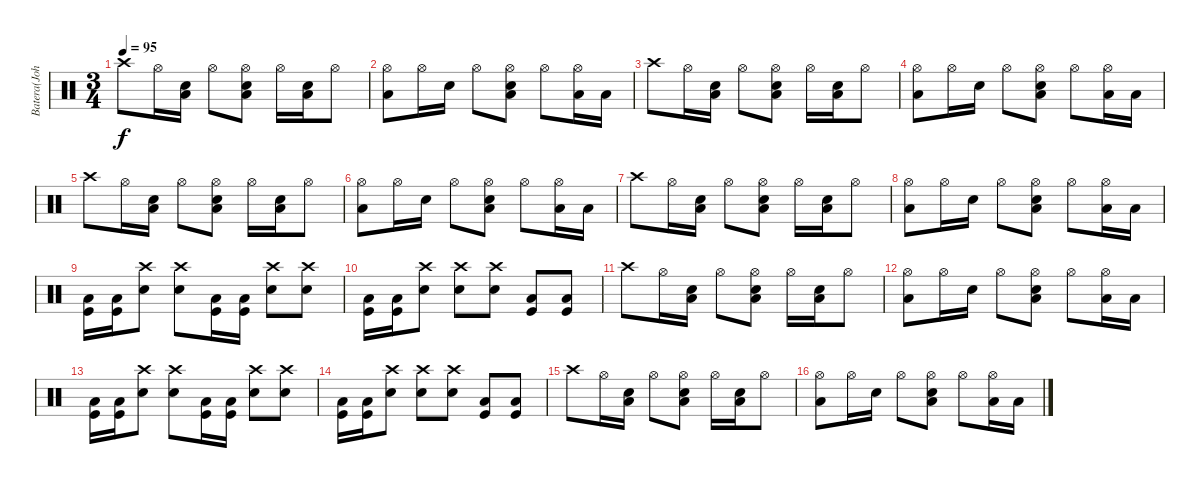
\track ("Batera(John)" "Batera(Joh") {instrument percussion}
\staff {score}
\articulation defaults
\ts (3 4)
\tempo 95
\clef neutral
\ks c "Crash high (hit)".8{dy f} "Hi-Hat (open)".16
("Snare (hit) 2" "Low Tom (hit)").16 "Hi-Hat (open)".8 ("Hi-Hat (open)" "Snare (hit) 2" "Low Tom (hit)").8 "Hi-Hat (open)".16 ("Snare (hit) 2" "Low Tom (hit)").16 "Hi-Hat (open)".8 |
("Hi-Hat (open)" "Low Tom (hit)").8 "Hi-Hat (open)".16 "Snare (hit) 2".16 "Hi-Hat (open)".8 ("Hi-Hat (open)" "Snare (hit) 2" "Low Tom (hit)").8 "Hi-Hat (open)".8 ("Hi-Hat (open)" "Low Tom (hit)").16 "Low Tom (hit)".16 |
"Crash high (hit)".8 "Hi-Hat (open)".16 ("Snare (hit) 2" "Low Tom (hit)").16 "Hi-Hat (open)".8 ("Hi-Hat (open)" "Snare (hit) 2" "Low Tom (hit)").8 "Hi-Hat (open)".16 ("Snare (hit) 2" "Low Tom (hit)").16 "Hi-Hat (open)".8 |
("Hi-Hat (open)" "Low Tom (hit)").8 "Hi-Hat (open)".16 "Snare (hit) 2".16 "Hi-Hat (open)".8 ("Hi-Hat (open)" "Snare (hit) 2" "Low Tom (hit)").8 "Hi-Hat (open)".8 ("Hi-Hat (open)" "Low Tom (hit)").16 "Low Tom (hit)".16 |
"Crash high (hit)".8 "Hi-Hat (open)".16 ("Snare (hit) 2" "Low Tom (hit)").16 "Hi-Hat (open)".8 ("Hi-Hat (open)" "Snare (hit) 2" "Low Tom (hit)").8 "Hi-Hat (open)".16 ("Snare (hit) 2" "Low Tom (hit)").16 "Hi-Hat (open)".8 |
("Hi-Hat (open)" "Low Tom (hit)").8 "Hi-Hat (open)".16 "Snare (hit) 2".16 "Hi-Hat (open)".8 ("Hi-Hat (open)" "Snare (hit) 2" "Low Tom (hit)").8 "Hi-Hat (open)".8 ("Hi-Hat (open)" "Low Tom (hit)").16 "Low Tom (hit)".16 |
"Crash high (hit)".8 "Hi-Hat (open)".16 ("Snare (hit) 2" "Low Tom (hit)").16 "Hi-Hat (open)".8 ("Hi-Hat (open)" "Snare (hit) 2" "Low Tom (hit)").8 "Hi-Hat (open)".16 ("Snare (hit) 2" "Low Tom (hit)").16 "Hi-Hat (open)".8 |
("Hi-Hat (open)" "Low Tom (hit)").8 "Hi-Hat (open)".16 "Snare (hit) 2".16 "Hi-Hat (open)".8 ("Hi-Hat (open)" "Snare (hit) 2" "Low Tom (hit)").8 "Hi-Hat (open)".8 ("Hi-Hat (open)" "Low Tom (hit)").16 "Low Tom (hit)".16 |
("Kick (hit)" "Low Tom (hit)").16 ("Kick (hit)" "Low Tom (hit)").16 ("Crash high (hit)" "Snare (hit) 2").8 ("Crash high (hit)" "Snare (hit) 2").8 ("Kick (hit)" "Low Tom (hit)").16 ("Kick (hit)" "Low Tom (hit)").16 ("Crash high (hit)" "Snare (hit) 2").8 ("Crash high (hit)" "Snare (hit) 2").8 |
("Kick (hit)" "Low Tom (hit)").16 ("Kick (hit)" "Low Tom (hit)").16 ("Crash high (hit)" "Snare (hit) 2").8 ("Crash high (hit)" "Snare (hit) 2").8 ("Crash high (hit)" "Snare (hit) 2").8 ("Kick (hit)" "Low Tom (hit)").8 ("Kick (hit)" "Low Tom (hit)").8 |
"Crash high (hit)".8 "Hi-Hat (open)".16 ("Snare (hit) 2" "Low Tom (hit)").16 "Hi-Hat (open)".8 ("Hi-Hat (open)" "Snare (hit) 2" "Low Tom (hit)").8 "Hi-Hat (open)".16 ("Snare (hit) 2" "Low Tom (hit)").16 "Hi-Hat (open)".8 |
("Hi-Hat (open)" "Low Tom (hit)").8 "Hi-Hat (open)".16 "Snare (hit) 2".16 "Hi-Hat (open)".8 ("Hi-Hat (open)" "Snare (hit) 2" "Low Tom (hit)").8 "Hi-Hat (open)".8 ("Hi-Hat (open)" "Low Tom (hit)").16 "Low Tom (hit)".16 |
("Kick (hit)" "Low Tom (hit)").16 ("Kick (hit)" "Low Tom (hit)").16 ("Crash high (hit)" "Snare (hit) 2").8 ("Crash high (hit)" "Snare (hit) 2").8 ("Kick (hit)" "Low Tom (hit)").16 ("Kick (hit)" "Low Tom (hit)").16 ("Crash high (hit)" "Snare (hit) 2").8 ("Crash high (hit)" "Snare (hit) 2").8 |
("Kick (hit)" "Low Tom (hit)").16 ("Kick (hit)" "Low Tom (hit)").16 ("Crash high (hit)" "Snare (hit) 2").8 ("Crash high (hit)" "Snare (hit) 2").8 ("Crash high (hit)" "Snare (hit) 2").8 ("Kick (hit)" "Low Tom (hit)").8 ("Kick (hit)" "Low Tom (hit)").8 |
"Crash high (hit)".8 "Hi-Hat (open)".16 ("Snare (hit) 2" "Low Tom (hit)").16 "Hi-Hat (open)".8 ("Hi-Hat (open)" "Snare (hit) 2" "Low Tom (hit)").8 "Hi-Hat (open)".16 ("Snare (hit) 2" "Low Tom (hit)").16 "Hi-Hat (open)".8 |
("Hi-Hat (open)" "Low Tom (hit)").8 "Hi-Hat (open)".16 "Snare (hit) 2".16 "Hi-Hat (open)".8 ("Hi-Hat (open)" "Snare (hit) 2" "Low Tom (hit)").8 "Hi-Hat (open)".8 ("Hi-Hat (open)" "Low Tom (hit)").16 "Low Tom (hit)".16
